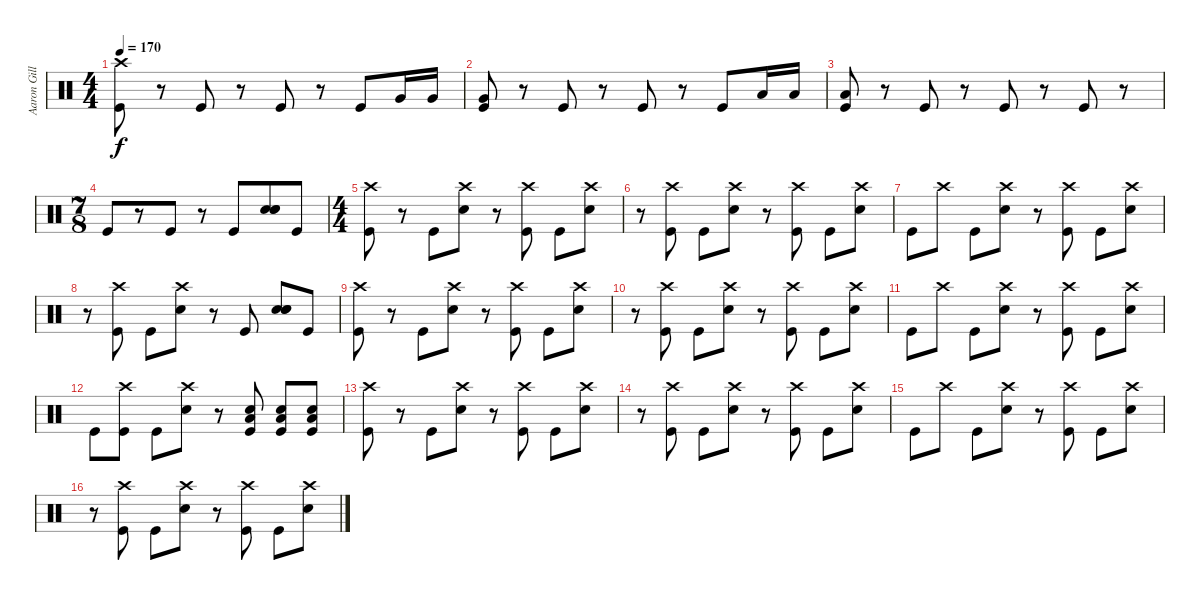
\track ("Aaron Gillepsie (Drums)" "Aaron Gill") {instrument percussion}
\staff {score}
\articulation defaults
\ts (4 4)
\tempo 170
\clef neutral
\ks c
("Crash high (hit)" "Kick (hit)").8{dy f} r.8 "Kick (hit)".8 r.8 "Kick (hit)".8 r.8 "Kick (hit)".8 "Very Low Tom (hit)".16 "Very Low Tom (hit)".16 |
("Very Low Tom (hit)" "Kick (hit)").8 r.8 "Kick (hit)".8 r.8 "Kick (hit)".8 r.8 "Kick (hit)".8 "Low Floor Tom (hit)".16 "Low Floor Tom (hit)".16 |
("Low Floor Tom (hit)" "Kick (hit)").8 r.8 "Kick (hit)".8 r.8 "Kick (hit)".8 r.8 "Kick (hit)".8 r.8 |
\ts (7 8)
"Kick (hit)".8 r.8 "Kick (hit)".8 r.8 "Kick (hit)".8 ("Electric Snare (hit)" "Electric Snare (hit)" "Electric Snare (hit)").8 "Kick (hit)".8 |
\ts (4 4)
("Crash high (hit)" "Kick (hit)").8 r.8 "Kick (hit)".8 ("Crash high (hit)" "Electric Snare (hit)").8 r.8 ("Crash high (hit)" "Kick (hit)").8 "Kick (hit)".8 ("Crash high (hit)" "Electric Snare (hit)").8 |
r.8 ("Crash high (hit)" "Kick (hit)").8 "Kick (hit)".8 ("Crash high (hit)" "Electric Snare (hit)").8 r.8 ("Crash high (hit)" "Kick (hit)").8 "Kick (hit)".8 ("Crash high (hit)" "Electric Snare (hit)").8 |
"Kick (hit)".8 "Crash high (hit)".8 "Kick (hit)".8 ("Crash high (hit)" "Electric Snare (hit)").8 r.8 ("Crash high (hit)" "Kick (hit)").8 "Kick (hit)".8 ("Crash high (hit)" "Electric Snare (hit)").8 |
r.8 ("Crash high (hit)" "Kick (hit)").8 "Kick (hit)".8 ("Crash high (hit)" "Electric Snare (hit)").8 r.8 "Kick (hit)".8 ("Electric Snare (hit)" "Electric Snare (hit)" "Electric Snare (hit)").8 "Kick (hit)".8 |
("Crash high (hit)" "Kick (hit)").8 r.8 "Kick (hit)".8 ("Crash high (hit)" "Electric Snare (hit)").8 r.8 ("Crash high (hit)" "Kick (hit)").8 "Kick (hit)".8 ("Crash high (hit)" "Electric Snare (hit)").8 |
r.8 ("Crash high (hit)" "Kick (hit)").8 "Kick (hit)".8 ("Crash high (hit)" "Electric Snare (hit)").8 r.8 ("Crash high (hit)" "Kick (hit)").8 "Kick (hit)".8 ("Crash high (hit)" "Electric Snare (hit)").8 |
"Kick (hit)".8 "Crash high (hit)".8 "Kick (hit)".8 ("Crash high (hit)" "Electric Snare (hit)").8 r.8 ("Crash high (hit)" "Kick (hit)").8 "Kick (hit)".8 ("Crash high (hit)" "Electric Snare (hit)").8 |
"Kick (hit)".8 ("Crash high (hit)" "Kick (hit)").8 "Kick (hit)".8 ("Crash high (hit)" "Electric Snare (hit)").8 r.8 ("Electric Snare (hit)" "Kick (hit)" "Low Floor Tom (hit)").8 ("Electric Snare (hit)" "Kick (hit)" "Low Floor Tom (hit)").8 ("Electric Snare (hit)" "Kick (hit)" "Low Floor Tom (hit)").8 |
("Crash high (hit)" "Kick (hit)").8 r.8 "Kick (hit)".8 ("Crash high (hit)" "Electric Snare (hit)").8 r.8 ("Crash high (hit)" "Kick (hit)").8 "Kick (hit)".8 ("Crash high (hit)" "Electric Snare (hit)").8 |
r.8 ("Crash high (hit)" "Kick (hit)").8 "Kick (hit)".8 ("Crash high (hit)" "Electric Snare (hit)").8 r.8 ("Crash high (hit)" "Kick (hit)").8 "Kick (hit)".8 ("Crash high (hit)" "Electric Snare (hit)").8 |
"Kick (hit)".8 "Crash high (hit)".8 "Kick (hit)".8 ("Crash high (hit)" "Electric Snare (hit)").8 r.8 ("Crash high (hit)" "Kick (hit)").8 "Kick (hit)".8 ("Crash high (hit)" "Electric Snare (hit)").8 |
r.8 ("Crash high (hit)" "Kick (hit)").8 "Kick (hit)".8 ("Crash high (hit)" "Electric Snare (hit)").8 r.8 ("Crash high (hit)" "Kick (hit)").8 "Kick (hit)".8 ("Crash high (hit)" "Electric Snare (hit)").8
